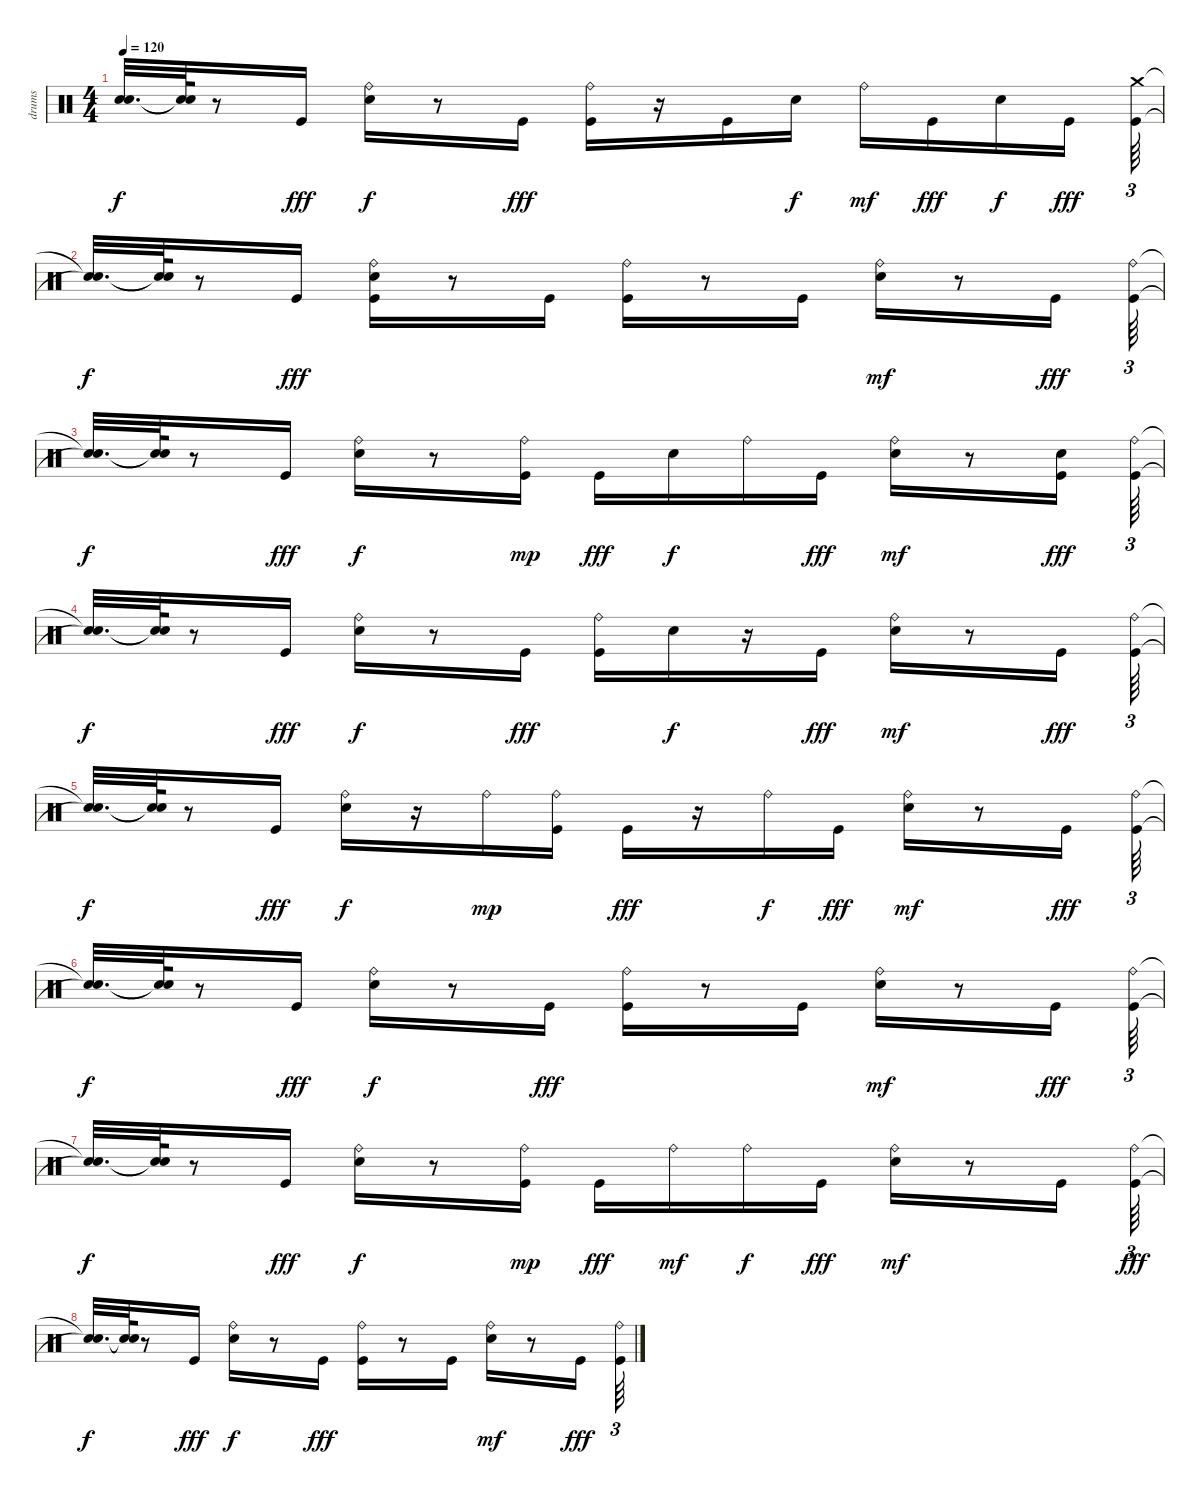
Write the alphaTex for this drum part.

\track ("drums" "drums") {instrument percussion}
\staff {score}
\articulation defaults
\ts (4 4)
\tempo 120
\clef neutral
\ks c
("Snare (hit)"{t} "Snare (hit)"{t}).32{d dy f} ("Snare (hit)"{t} "Snare (hit)"{t}).64 r.8 "Kick (hit)".16{dy fff} ("Snare (hit) 2" "Ride (bell)").16{dy f} r.8 "Kick (hit)".16{dy fff} ("Kick (hit)" "Ride (bell)").16 r.16 "Kick (hit)".16 "Snare (hit) 2".16{dy f} "Ride (bell)".16{dy mf} "Kick (hit)".16{dy fff} "Snare (hit) 2".16{dy f} "Kick (hit)".16{dy fff} ("Kick (hit)" "Crash medium (hit)").64{tu (3 2)} |
("Snare (hit)"{t} "Snare (hit)"{t}).32{d dy f} ("Snare (hit)"{t} "Snare (hit)"{t}).64 r.8 "Kick (hit)".16{dy fff} ("Kick (hit)" "Snare (hit) 2" "Ride (bell)").16 r.8 "Kick (hit)".16 ("Kick (hit)" "Ride (bell)").16 r.8 "Kick (hit)".16 ("Snare (hit) 2" "Ride (bell)").16{dy mf} r.8 "Kick (hit)".16{dy fff} ("Kick (hit)" "Ride (bell)").64{tu (3 2)} |
("Snare (hit)"{t} "Snare (hit)"{t}).32{d dy f} ("Snare (hit)"{t} "Snare (hit)"{t}).64 r.8 "Kick (hit)".16{dy fff} ("Snare (hit) 2" "Ride (bell)").16{dy f} r.8 ("Kick (hit)" "Ride (bell)").16{dy mp} "Kick (hit)".16{dy fff} "Snare (hit) 2".16{dy f} "Ride (bell)".16 "Kick (hit)".16{dy fff} ("Snare (hit) 2" "Ride (bell)").16{dy mf} r.8 ("Kick (hit)" "Snare (hit) 2").16{dy fff} ("Kick (hit)" "Ride (bell)").64{tu (3 2)} |
("Snare (hit)"{t} "Snare (hit)"{t}).32{d dy f} ("Snare (hit)"{t} "Snare (hit)"{t}).64 r.8 "Kick (hit)".16{dy fff} ("Snare (hit) 2" "Ride (bell)").16{dy f} r.8 "Kick (hit)".16{dy fff} ("Kick (hit)" "Ride (bell)").16 "Snare (hit) 2".16{dy f} r.16 "Kick (hit)".16{dy fff} ("Snare (hit) 2" "Ride (bell)").16{dy mf} r.8 "Kick (hit)".16{dy fff} ("Kick (hit)" "Ride (bell)").64{tu (3 2)} |
("Snare (hit)"{t} "Snare (hit)"{t}).32{d dy f} ("Snare (hit)"{t} "Snare (hit)"{t}).64 r.8 "Kick (hit)".16{dy fff} ("Snare (hit) 2" "Ride (bell)").16{dy f} r.16 "Ride (bell)".16{dy mp} ("Kick (hit)" "Ride (bell)").16 "Kick (hit)".16{dy fff} r.16 "Ride (bell)".16{dy f} "Kick (hit)".16{dy fff} ("Snare (hit) 2" "Ride (bell)").16{dy mf} r.8 "Kick (hit)".16{dy fff} ("Kick (hit)" "Ride (bell)").64{tu (3 2)} |
("Snare (hit)"{t} "Snare (hit)"{t}).32{d dy f} ("Snare (hit)"{t} "Snare (hit)"{t}).64 r.8 "Kick (hit)".16{dy fff} ("Snare (hit) 2" "Ride (bell)").16{dy f} r.8 "Kick (hit)".16{dy fff} ("Kick (hit)" "Ride (bell)").16 r.8 "Kick (hit)".16 ("Snare (hit) 2" "Ride (bell)").16{dy mf} r.8 "Kick (hit)".16{dy fff} ("Kick (hit)" "Ride (bell)").64{tu (3 2)} |
("Snare (hit)"{t} "Snare (hit)"{t}).32{d dy f} ("Snare (hit)"{t} "Snare (hit)"{t}).64 r.8 "Kick (hit)".16{dy fff} ("Snare (hit) 2" "Ride (bell)").16{dy f} r.8 ("Kick (hit)" "Ride (bell)").16{dy mp} "Kick (hit)".16{dy fff} "Ride (bell)".16{dy mf} "Ride (bell)".16{dy f} "Kick (hit)".16{dy fff} ("Snare (hit) 2" "Ride (bell)").16{dy mf} r.8 "Kick (hit)".16 ("Kick (hit)" "Ride (bell)").64{tu (3 2) dy fff} |
("Snare (hit)"{t} "Snare (hit)"{t}).32{d dy f} ("Snare (hit)"{t} "Snare (hit)"{t}).64 r.8 "Kick (hit)".16{dy fff} ("Snare (hit) 2" "Ride (bell)").16{dy f} r.8 "Kick (hit)".16{dy fff} ("Kick (hit)" "Ride (bell)").16 r.8 "Kick (hit)".16 ("Snare (hit) 2" "Ride (bell)").16{dy mf} r.8 "Kick (hit)".16{dy fff} ("Kick (hit)" "Ride (bell)").64{tu (3 2)}
